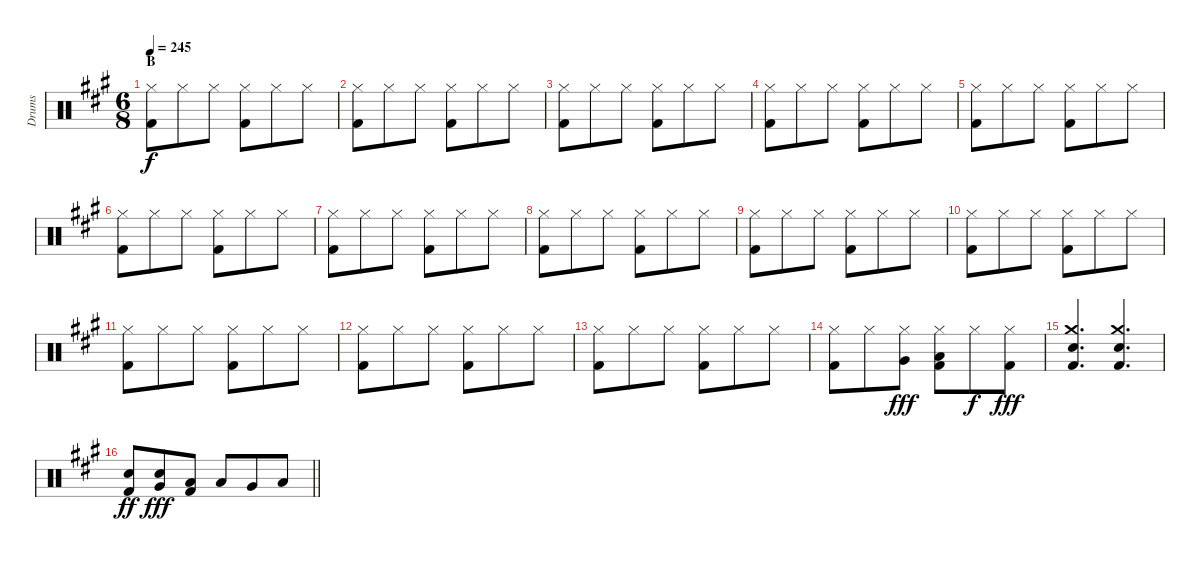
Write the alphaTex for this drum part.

\track ("Drums" "Drums") {instrument percussion}
\staff {score}
\articulation defaults
\ts (6 8)
\section ("" "B")
\tempo 245
\clef neutral
\ks a
("Hi-Hat (closed)" "Kick (hit) 2").8{dy f} "Hi-Hat (closed)".8 "Hi-Hat (closed)".8 ("Hi-Hat (closed)" "Kick (hit) 2").8 "Hi-Hat (closed)".8 "Hi-Hat (closed)".8 |
("Hi-Hat (closed)" "Kick (hit) 2").8 "Hi-Hat (closed)".8 "Hi-Hat (closed)".8 ("Hi-Hat (closed)" "Kick (hit) 2").8 "Hi-Hat (closed)".8 "Hi-Hat (closed)".8 |
("Hi-Hat (closed)" "Kick (hit) 2").8 "Hi-Hat (closed)".8 "Hi-Hat (closed)".8 ("Hi-Hat (closed)" "Kick (hit) 2").8 "Hi-Hat (closed)".8 "Hi-Hat (closed)".8 |
("Hi-Hat (closed)" "Kick (hit) 2").8 "Hi-Hat (closed)".8 "Hi-Hat (closed)".8 ("Hi-Hat (closed)" "Kick (hit) 2").8 "Hi-Hat (closed)".8 "Hi-Hat (closed)".8 |
("Hi-Hat (closed)" "Kick (hit) 2").8 "Hi-Hat (closed)".8 "Hi-Hat (closed)".8 ("Hi-Hat (closed)" "Kick (hit) 2").8 "Hi-Hat (closed)".8 "Hi-Hat (closed)".8 |
("Hi-Hat (closed)" "Kick (hit) 2").8 "Hi-Hat (closed)".8 "Hi-Hat (closed)".8 ("Hi-Hat (closed)" "Kick (hit) 2").8 "Hi-Hat (closed)".8 "Hi-Hat (closed)".8 |
("Hi-Hat (closed)" "Kick (hit) 2").8 "Hi-Hat (closed)".8 "Hi-Hat (closed)".8 ("Hi-Hat (closed)" "Kick (hit) 2").8 "Hi-Hat (closed)".8 "Hi-Hat (closed)".8 |
("Hi-Hat (closed)" "Kick (hit) 2").8 "Hi-Hat (closed)".8 "Hi-Hat (closed)".8 ("Hi-Hat (closed)" "Kick (hit) 2").8 "Hi-Hat (closed)".8 "Hi-Hat (closed)".8 |
("Hi-Hat (closed)" "Kick (hit) 2").8 "Hi-Hat (closed)".8 "Hi-Hat (closed)".8 ("Hi-Hat (closed)" "Kick (hit) 2").8 "Hi-Hat (closed)".8 "Hi-Hat (closed)".8 |
("Hi-Hat (closed)" "Kick (hit) 2").8 "Hi-Hat (closed)".8 "Hi-Hat (closed)".8 ("Hi-Hat (closed)" "Kick (hit) 2").8 "Hi-Hat (closed)".8 "Hi-Hat (closed)".8 |
("Hi-Hat (closed)" "Kick (hit) 2").8 "Hi-Hat (closed)".8 "Hi-Hat (closed)".8 ("Hi-Hat (closed)" "Kick (hit) 2").8 "Hi-Hat (closed)".8 "Hi-Hat (closed)".8 |
("Hi-Hat (closed)" "Kick (hit) 2").8 "Hi-Hat (closed)".8 "Hi-Hat (closed)".8 ("Hi-Hat (closed)" "Kick (hit) 2").8 "Hi-Hat (closed)".8 "Hi-Hat (closed)".8 |
("Hi-Hat (closed)" "Kick (hit) 2").8 "Hi-Hat (closed)".8 "Hi-Hat (closed)".8 ("Hi-Hat (closed)" "Kick (hit) 2").8 "Hi-Hat (closed)".8 "Hi-Hat (closed)".8 |
("Hi-Hat (closed)" "Kick (hit) 2").8 "Hi-Hat (closed)".8 ("Hi-Hat (closed)" "Very Low Tom (hit)").8{dy fff} ("Hi-Hat (closed)" "Low Floor Tom (hit)" "Kick (hit) 2").8 "Hi-Hat (closed)".8{dy f} ("Hi-Hat (closed)" "Kick (hit) 2").8{dy fff} |
("Crash medium (hit)" "Electric Snare (hit)" "Kick (hit) 2").4{d} ("Crash medium (hit)" "Electric Snare (hit)" "Kick (hit) 2").4{d} |
\barLineRight lightlight
("Electric Snare (hit)" "Kick (hit) 2").8{dy ff} ("Very Low Tom (hit)" "Electric Snare (hit)").8{dy fff} ("Low Floor Tom (hit)" "Kick (hit) 2").8 "Low Floor Tom (hit)".8 "Very Low Tom (hit)".8 "Low Tom (hit)".8
